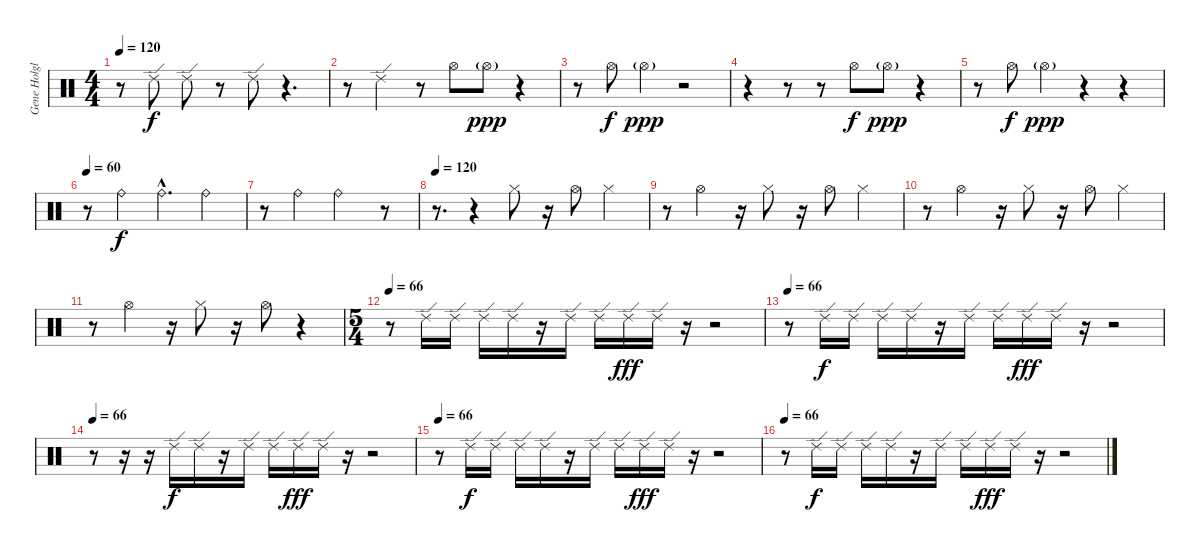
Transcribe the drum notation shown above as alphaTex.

\track ("Gene Holglan" "Gene Holgl") {instrument percussion}
\staff {score}
\articulation defaults
\ts (4 4)
\tempo 120
\clef neutral
\ks c
r.8{dy f} "Ride (edge) 2".8 "Ride (edge) 2".8 r.8 "Ride (edge) 2".8 r.4{d} |
r.8 "Ride (edge) 2".4 r.8 "Hi-Hat (open)".8 "Hi-Hat (open)"{g}.8{dy ppp} r.4 |
r.8 "Hi-Hat (open)".8{dy f} "Hi-Hat (open)"{g}.4{dy ppp} r.2 |
r.4 r.8 r.8 "Hi-Hat (open)".8{dy f} "Hi-Hat (open)"{g}.8{dy ppp} r.4 |
r.8 "Hi-Hat (open)".8{dy f} "Hi-Hat (open)"{g}.4{dy ppp} r.4 r.4 |
\tempo 60
r.8 "Ride (bell)".4{dy f} "Ride (bell)"{hac}.4{d} "Ride (bell)".4 |
r.8 "Ride (bell)".4 "Ride (bell)".2 r.8 |
\tempo 120
r.8{d} r.4 "Hi-Hat (closed)".8 r.16 "Hi-Hat (open)".8 "Hi-Hat (closed)".4 |
r.8 "Hi-Hat (open)".4 r.16 "Hi-Hat (closed)".8 r.16 "Hi-Hat (open)".8 "Hi-Hat (closed)".4 |
r.8 "Hi-Hat (open)".4 r.16 "Hi-Hat (closed)".8 r.16 "Hi-Hat (open)".8 "Hi-Hat (closed)".4 |
r.8 "Hi-Hat (open)".4 r.16 "Hi-Hat (closed)".8 r.16 "Hi-Hat (open)".8 r.4 |
\ts (5 4)
\tempo 66
r.8 "Ride (edge) 2".16 "Ride (edge) 2".16 "Ride (edge) 2".16 "Ride (edge) 2".16 r.16 "Ride (edge) 2".16 "Ride (edge) 2".16 "Ride (edge) 2".16{dy fff} "Ride (edge) 2".16 r.16 r.2 |
\tempo 66
r.8 "Ride (edge) 2".16{dy f} "Ride (edge) 2".16 "Ride (edge) 2".16 "Ride (edge) 2".16 r.16 "Ride (edge) 2".16 "Ride (edge) 2".16 "Ride (edge) 2".16{dy fff} "Ride (edge) 2".16 r.16 r.2 |
\tempo 66
r.8 r.16 r.16 "Ride (edge) 2".16{dy f} "Ride (edge) 2".16 r.16 "Ride (edge) 2".16 "Ride (edge) 2".16 "Ride (edge) 2".16{dy fff} "Ride (edge) 2".16 r.16 r.2 |
\tempo 66
r.8 "Ride (edge) 2".16{dy f} "Ride (edge) 2".16 "Ride (edge) 2".16 "Ride (edge) 2".16 r.16 "Ride (edge) 2".16 "Ride (edge) 2".16 "Ride (edge) 2".16{dy fff} "Ride (edge) 2".16 r.16 r.2 |
\tempo 66
r.8 "Ride (edge) 2".16{dy f} "Ride (edge) 2".16 "Ride (edge) 2".16 "Ride (edge) 2".16 r.16 "Ride (edge) 2".16 "Ride (edge) 2".16 "Ride (edge) 2".16{dy fff} "Ride (edge) 2".16 r.16 r.2
